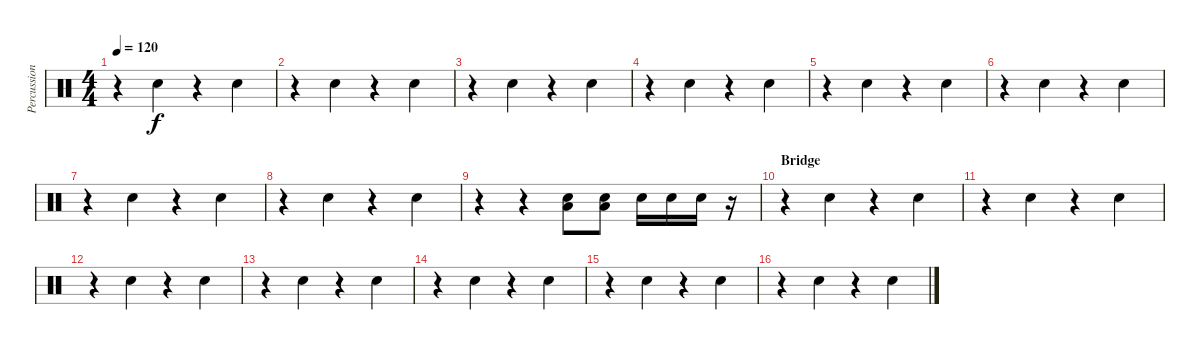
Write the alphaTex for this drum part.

\track ("Percussion 1" "Percussion") {instrument percussion}
\staff {score}
\articulation defaults
\ts (4 4)
\tempo 120
\clef neutral
\ks c
r.4{dy f} "Electric Snare (hit)".4 r.4 "Electric Snare (hit)".4 |
r.4 "Electric Snare (hit)".4 r.4 "Electric Snare (hit)".4 |
r.4 "Electric Snare (hit)".4 r.4 "Electric Snare (hit)".4 |
r.4 "Electric Snare (hit)".4 r.4 "Electric Snare (hit)".4 |
r.4 "Electric Snare (hit)".4 r.4 "Electric Snare (hit)".4 |
r.4 "Electric Snare (hit)".4 r.4 "Electric Snare (hit)".4 |
r.4 "Electric Snare (hit)".4 r.4 "Electric Snare (hit)".4 |
r.4 "Electric Snare (hit)".4 r.4 "Electric Snare (hit)".4 |
r.4 r.4 ("Low Tom (hit)" "Electric Snare (hit)").8 ("Electric Snare (hit)" "Low Tom (hit)").8 "Electric Snare (hit)".16 "Electric Snare (hit)".16 "Electric Snare (hit)".16 r.16 |
\section ("" "Bridge")
r.4{volume 13} "Electric Snare (hit)".4 r.4 "Electric Snare (hit)".4 |
r.4 "Electric Snare (hit)".4 r.4 "Electric Snare (hit)".4 |
r.4 "Electric Snare (hit)".4 r.4 "Electric Snare (hit)".4 |
r.4 "Electric Snare (hit)".4 r.4 "Electric Snare (hit)".4 |
r.4 "Electric Snare (hit)".4 r.4 "Electric Snare (hit)".4 |
r.4 "Electric Snare (hit)".4 r.4 "Electric Snare (hit)".4 |
r.4 "Electric Snare (hit)".4 r.4 "Electric Snare (hit)".4
